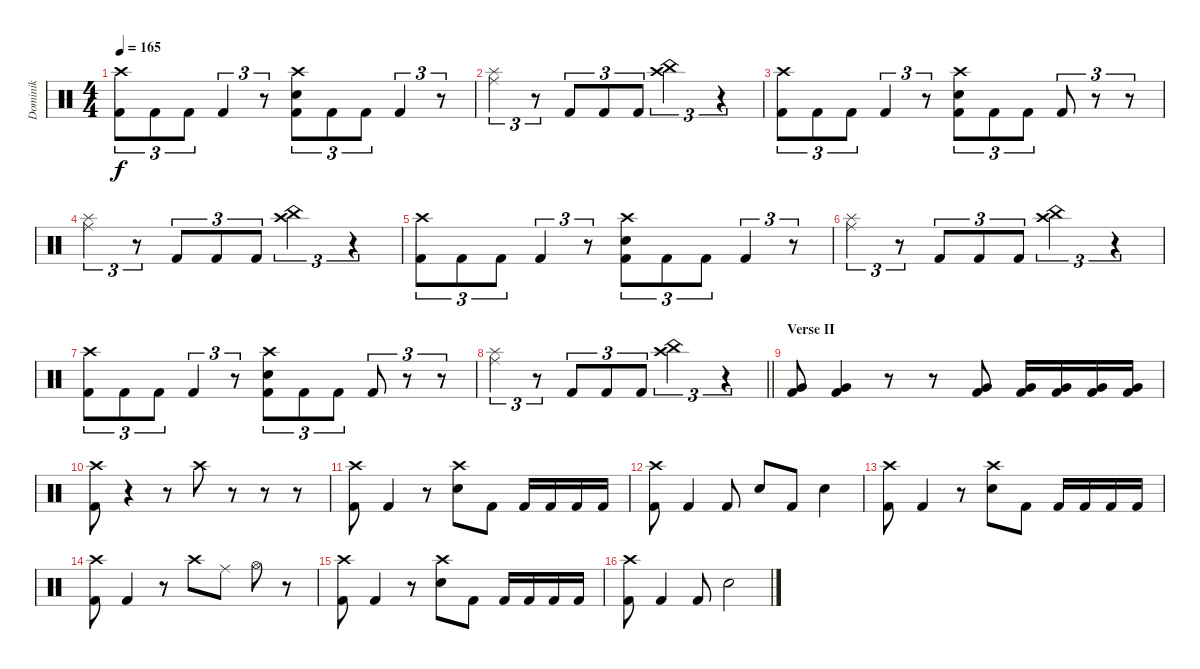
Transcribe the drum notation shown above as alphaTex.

\track ("Dominik" "Dominik") {instrument percussion}
\staff {score}
\articulation defaults
\ts (4 4)
\tempo 165
\clef neutral
\ks c
("Crash high (hit)" "Kick (hit) 2").8{tu (3 2) dy f} "Kick (hit) 2".8{tu (3 2)} "Kick (hit) 2".8{tu (3 2)} "Kick (hit) 2".4{tu (3 2)} r.8{tu (3 2)} ("Crash high (hit)" "Electric Snare (hit)" "Kick (hit) 2").8{tu (3 2)} "Kick (hit) 2".8{tu (3 2)} "Kick (hit) 2".8{tu (3 2)} "Kick (hit) 2".4{tu (3 2)} r.8{tu (3 2)} |
("Splash (hit)" "Ride (middle)").4{tu (3 2)} r.8{tu (3 2)} "Kick (hit) 2".8{tu (3 2)} "Kick (hit) 2".8{tu (3 2)} "Kick (hit) 2".8{tu (3 2)} ("China (hit)" "Crash high (hit)").2{tu (3 2)} r.4{tu (3 2)} |
("Crash high (hit)" "Kick (hit) 2").8{tu (3 2)} "Kick (hit) 2".8{tu (3 2)} "Kick (hit) 2".8{tu (3 2)} "Kick (hit) 2".4{tu (3 2)} r.8{tu (3 2)} ("Crash high (hit)" "Electric Snare (hit)" "Kick (hit) 2").8{tu (3 2)} "Kick (hit) 2".8{tu (3 2)} "Kick (hit) 2".8{tu (3 2)} "Kick (hit) 2".8{tu (3 2)} r.8{tu (3 2)} r.8{tu (3 2)} |
("Splash (hit)" "Ride (middle)").4{tu (3 2)} r.8{tu (3 2)} "Kick (hit) 2".8{tu (3 2)} "Kick (hit) 2".8{tu (3 2)} "Kick (hit) 2".8{tu (3 2)} ("China (hit)" "Crash high (hit)").2{tu (3 2)} r.4{tu (3 2)} |
("Crash high (hit)" "Kick (hit) 2").8{tu (3 2)} "Kick (hit) 2".8{tu (3 2)} "Kick (hit) 2".8{tu (3 2)} "Kick (hit) 2".4{tu (3 2)} r.8{tu (3 2)} ("Crash high (hit)" "Electric Snare (hit)" "Kick (hit) 2").8{tu (3 2)} "Kick (hit) 2".8{tu (3 2)} "Kick (hit) 2".8{tu (3 2)} "Kick (hit) 2".4{tu (3 2)} r.8{tu (3 2)} |
("Splash (hit)" "Ride (middle)").4{tu (3 2)} r.8{tu (3 2)} "Kick (hit) 2".8{tu (3 2)} "Kick (hit) 2".8{tu (3 2)} "Kick (hit) 2".8{tu (3 2)} ("China (hit)" "Crash high (hit)").2{tu (3 2)} r.4{tu (3 2)} |
("Crash high (hit)" "Kick (hit) 2").8{tu (3 2)} "Kick (hit) 2".8{tu (3 2)} "Kick (hit) 2".8{tu (3 2)} "Kick (hit) 2".4{tu (3 2)} r.8{tu (3 2)} ("Crash high (hit)" "Electric Snare (hit)" "Kick (hit) 2").8{tu (3 2)} "Kick (hit) 2".8{tu (3 2)} "Kick (hit) 2".8{tu (3 2)} "Kick (hit) 2".8{tu (3 2)} r.8{tu (3 2)} r.8{tu (3 2)} |
\barLineRight lightlight
("Splash (hit)" "Ride (middle)").4{tu (3 2)} r.8{tu (3 2)} "Kick (hit) 2".8{tu (3 2)} "Kick (hit) 2".8{tu (3 2)} "Kick (hit) 2".8{tu (3 2)} ("China (hit)" "Crash high (hit)").2{tu (3 2)} r.4{tu (3 2)} |
\section ("" "Verse II")
("Very Low Tom (hit)" "Kick (hit) 2").8 ("Very Low Tom (hit)" "Kick (hit) 2").4 r.8 r.8 ("Very Low Tom (hit)" "Kick (hit) 2").8 ("Very Low Tom (hit)" "Kick (hit) 2").16 ("Very Low Tom (hit)" "Kick (hit) 2").16 ("Very Low Tom (hit)" "Kick (hit) 2").16 ("Very Low Tom (hit)" "Kick (hit) 2").16 |
("Crash high (hit)" "Kick (hit) 2").8 r.4 r.8 "Crash high (hit)".8 r.8 r.8 r.8 |
("Crash high (hit)" "Kick (hit) 2").8 "Kick (hit) 2".4 r.8 ("Crash high (hit)" "Electric Snare (hit)").8 "Kick (hit) 2".8 "Kick (hit) 2".16 "Kick (hit) 2".16 "Kick (hit) 2".16 "Kick (hit) 2".16 |
("Crash high (hit)" "Kick (hit) 2").8 "Kick (hit) 2".4 "Kick (hit) 2".8 "Electric Snare (hit)".8 "Kick (hit) 2".8 "Electric Snare (hit)".4 |
("Crash high (hit)" "Kick (hit) 2").8 "Kick (hit) 2".4 r.8 ("Crash high (hit)" "Electric Snare (hit)").8 "Kick (hit) 2".8 "Kick (hit) 2".16 "Kick (hit) 2".16 "Kick (hit) 2".16 "Kick (hit) 2".16 |
("Crash high (hit)" "Kick (hit) 2").8 "Kick (hit) 2".4 r.8 "Crash high (hit)".8 "Ride (middle)".8 "Hi-Hat (open)".8 r.8 |
("Crash high (hit)" "Kick (hit) 2").8 "Kick (hit) 2".4 r.8 ("Crash high (hit)" "Electric Snare (hit)").8 "Kick (hit) 2".8 "Kick (hit) 2".16 "Kick (hit) 2".16 "Kick (hit) 2".16 "Kick (hit) 2".16 |
("Crash high (hit)" "Kick (hit) 2").8 "Kick (hit) 2".4 "Kick (hit) 2".8 "Electric Snare (hit)".2
